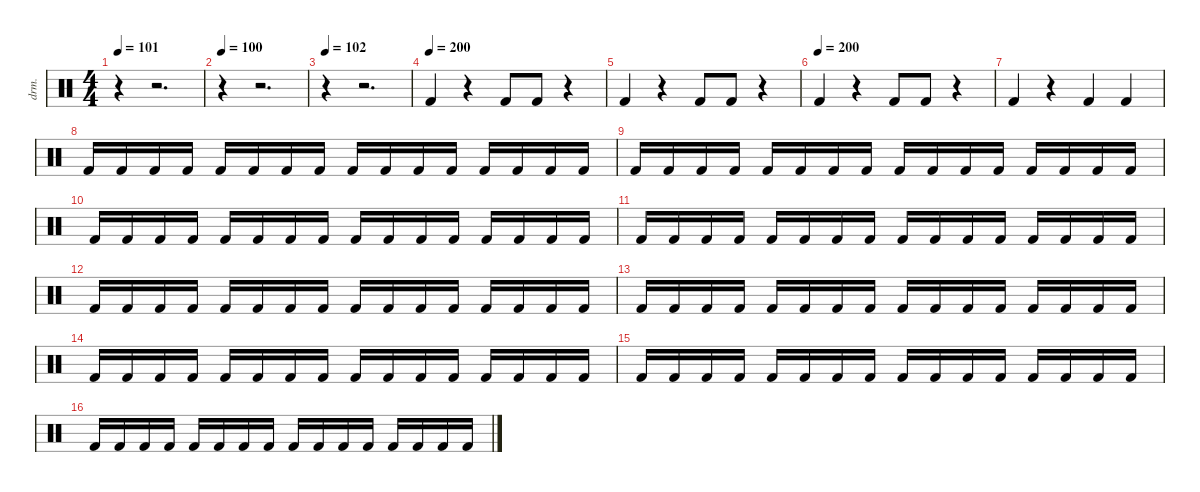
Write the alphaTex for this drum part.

\defaultSystemsLayout 4
\hideDynamics
\bracketExtendMode nobrackets
\track ("Percussion" "drm.") {instrument percussion}
\staff {score}
\articulation defaults
\ts (4 4)
\tempo 101
\clef neutral
\ks c
r.4{dy ff} r.2{d} |
\tempo 100
r.4 r.2{d} |
\tempo 102
r.4 r.2{d} |
\tempo (200)
"Kick (hit) 2".4{dy f} r.4 "Kick (hit) 2".8 "Kick (hit) 2".8 r.4 |
"Kick (hit) 2".4 r.4 "Kick (hit) 2".8 "Kick (hit) 2".8 r.4 |
\tempo (200)
"Kick (hit) 2".4 r.4 "Kick (hit) 2".8 "Kick (hit) 2".8 r.4 |
"Kick (hit) 2".4 r.4 "Kick (hit) 2".4 "Kick (hit) 2".4 |
"Kick (hit) 2".16 "Kick (hit) 2".16 "Kick (hit) 2".16 "Kick (hit) 2".16 "Kick (hit) 2".16 "Kick (hit) 2".16 "Kick (hit) 2".16 "Kick (hit) 2".16 "Kick (hit) 2".16 "Kick (hit) 2".16 "Kick (hit) 2".16 "Kick (hit) 2".16 "Kick (hit) 2".16 "Kick (hit) 2".16 "Kick (hit) 2".16 "Kick (hit) 2".16 |
"Kick (hit) 2".16 "Kick (hit) 2".16 "Kick (hit) 2".16 "Kick (hit) 2".16 "Kick (hit) 2".16 "Kick (hit) 2".16 "Kick (hit) 2".16 "Kick (hit) 2".16 "Kick (hit) 2".16 "Kick (hit) 2".16 "Kick (hit) 2".16 "Kick (hit) 2".16 "Kick (hit) 2".16 "Kick (hit) 2".16 "Kick (hit) 2".16 "Kick (hit) 2".16 |
"Kick (hit) 2".16 "Kick (hit) 2".16 "Kick (hit) 2".16 "Kick (hit) 2".16 "Kick (hit) 2".16 "Kick (hit) 2".16 "Kick (hit) 2".16 "Kick (hit) 2".16 "Kick (hit) 2".16 "Kick (hit) 2".16 "Kick (hit) 2".16 "Kick (hit) 2".16 "Kick (hit) 2".16 "Kick (hit) 2".16 "Kick (hit) 2".16 "Kick (hit) 2".16 |
"Kick (hit) 2".16 "Kick (hit) 2".16 "Kick (hit) 2".16 "Kick (hit) 2".16 "Kick (hit) 2".16 "Kick (hit) 2".16 "Kick (hit) 2".16 "Kick (hit) 2".16 "Kick (hit) 2".16 "Kick (hit) 2".16 "Kick (hit) 2".16 "Kick (hit) 2".16 "Kick (hit) 2".16 "Kick (hit) 2".16 "Kick (hit) 2".16 "Kick (hit) 2".16 |
"Kick (hit) 2".16 "Kick (hit) 2".16 "Kick (hit) 2".16 "Kick (hit) 2".16 "Kick (hit) 2".16 "Kick (hit) 2".16 "Kick (hit) 2".16 "Kick (hit) 2".16 "Kick (hit) 2".16 "Kick (hit) 2".16 "Kick (hit) 2".16 "Kick (hit) 2".16 "Kick (hit) 2".16 "Kick (hit) 2".16 "Kick (hit) 2".16 "Kick (hit) 2".16 |
"Kick (hit) 2".16 "Kick (hit) 2".16 "Kick (hit) 2".16 "Kick (hit) 2".16 "Kick (hit) 2".16 "Kick (hit) 2".16 "Kick (hit) 2".16 "Kick (hit) 2".16 "Kick (hit) 2".16 "Kick (hit) 2".16 "Kick (hit) 2".16 "Kick (hit) 2".16 "Kick (hit) 2".16 "Kick (hit) 2".16 "Kick (hit) 2".16 "Kick (hit) 2".16 |
"Kick (hit) 2".16 "Kick (hit) 2".16 "Kick (hit) 2".16 "Kick (hit) 2".16 "Kick (hit) 2".16 "Kick (hit) 2".16 "Kick (hit) 2".16 "Kick (hit) 2".16 "Kick (hit) 2".16 "Kick (hit) 2".16 "Kick (hit) 2".16 "Kick (hit) 2".16 "Kick (hit) 2".16 "Kick (hit) 2".16 "Kick (hit) 2".16 "Kick (hit) 2".16 |
"Kick (hit) 2".16 "Kick (hit) 2".16 "Kick (hit) 2".16 "Kick (hit) 2".16 "Kick (hit) 2".16 "Kick (hit) 2".16 "Kick (hit) 2".16 "Kick (hit) 2".16 "Kick (hit) 2".16 "Kick (hit) 2".16 "Kick (hit) 2".16 "Kick (hit) 2".16 "Kick (hit) 2".16 "Kick (hit) 2".16 "Kick (hit) 2".16 "Kick (hit) 2".16 |
"Kick (hit) 2".16 "Kick (hit) 2".16 "Kick (hit) 2".16 "Kick (hit) 2".16 "Kick (hit) 2".16 "Kick (hit) 2".16 "Kick (hit) 2".16 "Kick (hit) 2".16 "Kick (hit) 2".16 "Kick (hit) 2".16 "Kick (hit) 2".16 "Kick (hit) 2".16 "Kick (hit) 2".16 "Kick (hit) 2".16 "Kick (hit) 2".16 "Kick (hit) 2".16
